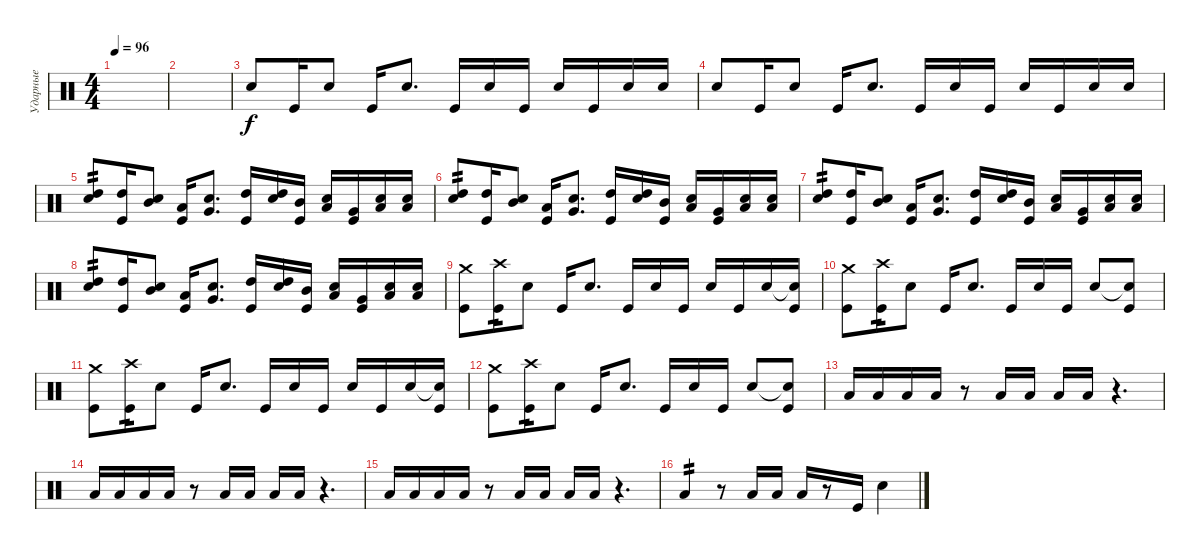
\track ("Ударные" "Ударные") {instrument percussion}
\staff {score}
\articulation defaults
\ts (4 4)
\tempo 96
\clef neutral
\ks c
|
|
"Electric Snare (hit)".8 "Kick (hit)".16 "Electric Snare (hit)".8 "Kick (hit)".16 "Electric Snare (hit)".8{d} "Kick (hit)".16 "Electric Snare (hit)".16 "Kick (hit)".16 "Electric Snare (hit)".16 "Kick (hit)".16 "Electric Snare (hit)".16 "Electric Snare (hit)".16 |
"Electric Snare (hit)".8 "Kick (hit)".16 "Electric Snare (hit)".8 "Kick (hit)".16 "Electric Snare (hit)".8{d} "Kick (hit)".16 "Electric Snare (hit)".16 "Kick (hit)".16 "Electric Snare (hit)".16 "Kick (hit)".16 "Electric Snare (hit)".16 "Electric Snare (hit)".16 |
("High Tom (hit)" "Electric Snare (hit)").8{tp 2} ("High Tom (hit)" "Kick (hit)").16 ("Mid Tom (hit)" "Electric Snare (hit)").8 ("Low Tom (hit)" "Kick (hit)").16 ("Very Low Tom (hit)" "Electric Snare (hit)").8{d} ("High Tom (hit)" "Kick (hit)").16 ("High Tom (hit)" "Electric Snare (hit)").16 ("Mid Tom (hit)" "Kick (hit)").16 ("Low Tom (hit)" "Electric Snare (hit)").16 ("Very Low Tom (hit)" "Kick (hit)").16 ("Low Floor Tom (hit)" "Electric Snare (hit)").16 ("Low Floor Tom (hit)" "Electric Snare (hit)").16 |
("High Tom (hit)" "Electric Snare (hit)").8{tp 2} ("High Tom (hit)" "Kick (hit)").16 ("Mid Tom (hit)" "Electric Snare (hit)").8 ("Low Tom (hit)" "Kick (hit)").16 ("Very Low Tom (hit)" "Electric Snare (hit)").8{d} ("High Tom (hit)" "Kick (hit)").16 ("High Tom (hit)" "Electric Snare (hit)").16 ("Mid Tom (hit)" "Kick (hit)").16 ("Low Tom (hit)" "Electric Snare (hit)").16 ("Very Low Tom (hit)" "Kick (hit)").16 ("Low Floor Tom (hit)" "Electric Snare (hit)").16 ("Low Floor Tom (hit)" "Electric Snare (hit)").16 |
("High Tom (hit)" "Electric Snare (hit)").8{tp 2} ("High Tom (hit)" "Kick (hit)").16 ("Mid Tom (hit)" "Electric Snare (hit)").8 ("Low Tom (hit)" "Kick (hit)").16 ("Very Low Tom (hit)" "Electric Snare (hit)").8{d} ("High Tom (hit)" "Kick (hit)").16 ("High Tom (hit)" "Electric Snare (hit)").16 ("Mid Tom (hit)" "Kick (hit)").16 ("Low Tom (hit)" "Electric Snare (hit)").16 ("Very Low Tom (hit)" "Kick (hit)").16 ("Low Floor Tom (hit)" "Electric Snare (hit)").16 ("Low Floor Tom (hit)" "Electric Snare (hit)").16 |
("High Tom (hit)" "Electric Snare (hit)").8{tp 2} ("High Tom (hit)" "Kick (hit)").16 ("Mid Tom (hit)" "Electric Snare (hit)").8 ("Low Tom (hit)" "Kick (hit)").16 ("Very Low Tom (hit)" "Electric Snare (hit)").8{d} ("High Tom (hit)" "Kick (hit)").16 ("High Tom (hit)" "Electric Snare (hit)").16 ("Mid Tom (hit)" "Kick (hit)").16 ("Low Tom (hit)" "Electric Snare (hit)").16 ("Very Low Tom (hit)" "Kick (hit)").16 ("Low Floor Tom (hit)" "Electric Snare (hit)").16 ("Low Floor Tom (hit)" "Electric Snare (hit)").16 |
("Crash medium (hit)" "Kick (hit)").8 ("Crash high (hit)" "Kick (hit)").16{tp 1} "Electric Snare (hit)".8 "Kick (hit)".16 "Electric Snare (hit)".8{d} "Kick (hit)".16 "Electric Snare (hit)".16 "Kick (hit)".16 "Electric Snare (hit)".16 "Kick (hit)".16 "Electric Snare (hit)".16 ("Snare (hit)"{t} "Kick (hit)").16 |
("Crash medium (hit)" "Kick (hit)").8 ("Crash high (hit)" "Kick (hit)").16{tp 1} "Electric Snare (hit)".8 "Kick (hit)".16 "Electric Snare (hit)".8{d} "Kick (hit)".16 "Electric Snare (hit)".16 "Kick (hit)".16 "Electric Snare (hit)".8 ("Snare (hit)"{t} "Kick (hit)").8 |
("Crash medium (hit)" "Kick (hit)").8 ("Crash high (hit)" "Kick (hit)").16{tp 1} "Electric Snare (hit)".8 "Kick (hit)".16 "Electric Snare (hit)".8{d} "Kick (hit)".16 "Electric Snare (hit)".16 "Kick (hit)".16 "Electric Snare (hit)".16 "Kick (hit)".16 "Electric Snare (hit)".16 ("Snare (hit)"{t} "Kick (hit)").16 |
("Crash medium (hit)" "Kick (hit)").8 ("Crash high (hit)" "Kick (hit)").16{tp 1} "Electric Snare (hit)".8 "Kick (hit)".16 "Electric Snare (hit)".8{d} "Kick (hit)".16 "Electric Snare (hit)".16 "Kick (hit)".16 "Electric Snare (hit)".8 ("Snare (hit)"{t} "Kick (hit)").8 |
"Low Floor Tom (hit)".16 "Low Floor Tom (hit)".16 "Low Floor Tom (hit)".16 "Low Floor Tom (hit)".16 r.8 "Low Floor Tom (hit)".16 "Low Floor Tom (hit)".16 "Low Floor Tom (hit)".16 "Low Floor Tom (hit)".16 r.4{d} |
"Low Floor Tom (hit)".16 "Low Floor Tom (hit)".16 "Low Floor Tom (hit)".16 "Low Floor Tom (hit)".16 r.8 "Low Floor Tom (hit)".16 "Low Floor Tom (hit)".16 "Low Floor Tom (hit)".16 "Low Floor Tom (hit)".16 r.4{d} |
"Low Floor Tom (hit)".16 "Low Floor Tom (hit)".16 "Low Floor Tom (hit)".16 "Low Floor Tom (hit)".16 r.8 "Low Floor Tom (hit)".16 "Low Floor Tom (hit)".16 "Low Floor Tom (hit)".16 "Low Floor Tom (hit)".16 r.4{d} |
"Low Floor Tom (hit)".4{tp 2} r.8 "Low Floor Tom (hit)".16 "Low Floor Tom (hit)".16 "Low Floor Tom (hit)".16 r.8 "Kick (hit)".16 "Electric Snare (hit)".4
